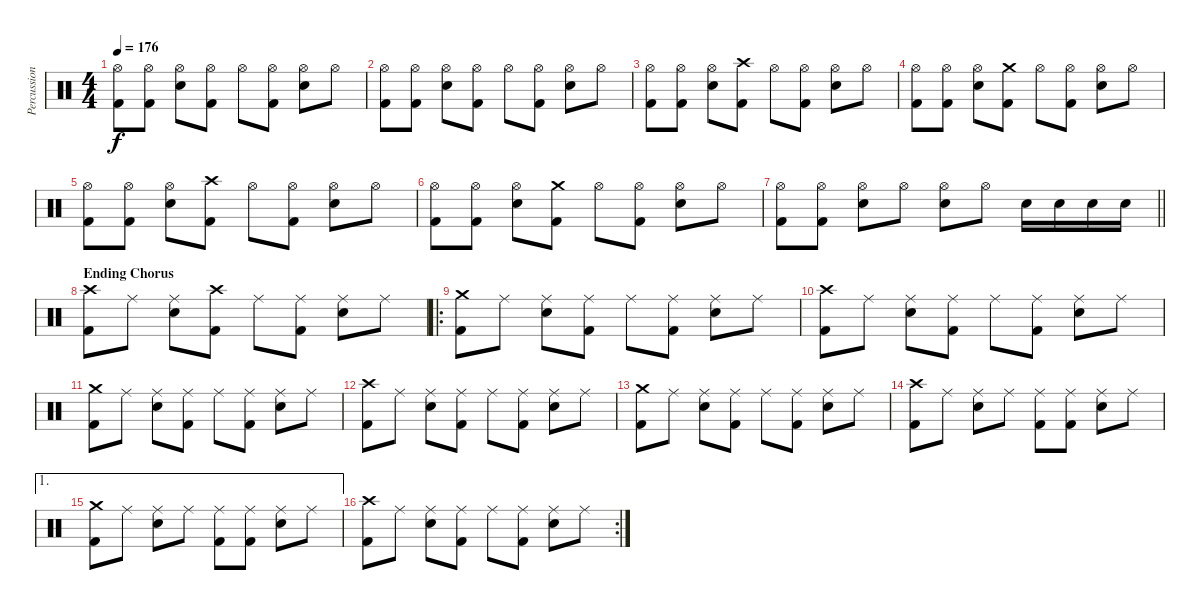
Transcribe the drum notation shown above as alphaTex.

\track ("Percussion" "Percussion") {instrument percussion}
\staff {score}
\articulation defaults
\ts (4 4)
\tempo 176
\clef neutral
\ks c
("Hi-Hat (open)" "Kick (hit) 2").8{dy f} ("Hi-Hat (open)" "Kick (hit) 2").8 ("Hi-Hat (open)" "Snare (hit) 2").8 ("Hi-Hat (open)" "Kick (hit) 2").8 "Hi-Hat (open)".8 ("Hi-Hat (open)" "Kick (hit) 2").8 ("Hi-Hat (open)" "Snare (hit) 2").8 "Hi-Hat (open)".8 |
("Hi-Hat (open)" "Kick (hit) 2").8 ("Hi-Hat (open)" "Kick (hit) 2").8 ("Hi-Hat (open)" "Snare (hit) 2").8 ("Hi-Hat (open)" "Kick (hit) 2").8 "Hi-Hat (open)".8 ("Hi-Hat (open)" "Kick (hit) 2").8 ("Hi-Hat (open)" "Snare (hit) 2").8 "Hi-Hat (open)".8 |
("Hi-Hat (open)" "Kick (hit) 2").8 ("Hi-Hat (open)" "Kick (hit) 2").8 ("Hi-Hat (open)" "Snare (hit) 2").8 ("Crash high (hit)" "Kick (hit) 2").8 "Hi-Hat (open)".8 ("Hi-Hat (open)" "Kick (hit) 2").8 ("Hi-Hat (open)" "Snare (hit) 2").8 "Hi-Hat (open)".8 |
("Hi-Hat (open)" "Kick (hit) 2").8 ("Hi-Hat (open)" "Kick (hit) 2").8 ("Hi-Hat (open)" "Snare (hit) 2").8 ("Crash medium (hit)" "Kick (hit) 2").8 "Hi-Hat (open)".8 ("Hi-Hat (open)" "Kick (hit) 2").8 ("Hi-Hat (open)" "Snare (hit) 2").8 "Hi-Hat (open)".8 |
("Hi-Hat (open)" "Kick (hit) 2").8 ("Hi-Hat (open)" "Kick (hit) 2").8 ("Hi-Hat (open)" "Snare (hit) 2").8 ("Crash high (hit)" "Kick (hit) 2").8 "Hi-Hat (open)".8 ("Hi-Hat (open)" "Kick (hit) 2").8 ("Hi-Hat (open)" "Snare (hit) 2").8 "Hi-Hat (open)".8 |
("Hi-Hat (open)" "Kick (hit) 2").8 ("Hi-Hat (open)" "Kick (hit) 2").8 ("Hi-Hat (open)" "Snare (hit) 2").8 ("Crash medium (hit)" "Kick (hit) 2").8 "Hi-Hat (open)".8 ("Hi-Hat (open)" "Kick (hit) 2").8 ("Hi-Hat (open)" "Snare (hit) 2").8 "Hi-Hat (open)".8 |
\barLineRight lightlight
("Hi-Hat (open)" "Kick (hit) 2").8 ("Hi-Hat (open)" "Kick (hit) 2").8 ("Hi-Hat (open)" "Snare (hit) 2").8 "Hi-Hat (open)".8 ("Hi-Hat (open)" "Snare (hit) 2").8 "Hi-Hat (open)".8 "Snare (hit) 2".16 "Snare (hit) 2".16 "Snare (hit) 2".16 "Snare (hit) 2".16 |
\section ("" "Ending Chorus")
("Crash high (hit)" "Kick (hit) 2").8 "Ride (middle)".8 ("Ride (middle)" "Snare (hit) 2").8 ("Crash high (hit)" "Kick (hit) 2").8 "Ride (middle)".8 ("Ride (middle)" "Kick (hit) 2").8 ("Ride (middle)" "Snare (hit) 2").8 "Ride (middle)".8 |
\ro
("Crash medium (hit)" "Kick (hit) 2").8 "Ride (middle)".8 ("Ride (middle)" "Snare (hit) 2").8 ("Ride (middle)" "Kick (hit) 2").8 "Ride (middle)".8 ("Ride (middle)" "Kick (hit) 2").8 ("Ride (middle)" "Snare (hit) 2").8 "Ride (middle)".8 |
("Crash high (hit)" "Kick (hit) 2").8 "Ride (middle)".8 ("Ride (middle)" "Snare (hit) 2").8 ("Ride (middle)" "Kick (hit) 2").8 "Ride (middle)".8 ("Ride (middle)" "Kick (hit) 2").8 ("Ride (middle)" "Snare (hit) 2").8 "Ride (middle)".8 |
("Crash medium (hit)" "Kick (hit) 2").8 "Ride (middle)".8 ("Ride (middle)" "Snare (hit) 2").8 ("Ride (middle)" "Kick (hit) 2").8 "Ride (middle)".8 ("Ride (middle)" "Kick (hit) 2").8 ("Ride (middle)" "Snare (hit) 2").8 "Ride (middle)".8 |
("Crash high (hit)" "Kick (hit) 2").8 "Ride (middle)".8 ("Ride (middle)" "Snare (hit) 2").8 ("Ride (middle)" "Kick (hit) 2").8 "Ride (middle)".8 ("Ride (middle)" "Kick (hit) 2").8 ("Ride (middle)" "Snare (hit) 2").8 "Ride (middle)".8 |
("Crash medium (hit)" "Kick (hit) 2").8 "Ride (middle)".8 ("Ride (middle)" "Snare (hit) 2").8 ("Ride (middle)" "Kick (hit) 2").8 "Ride (middle)".8 ("Ride (middle)" "Kick (hit) 2").8 ("Ride (middle)" "Snare (hit) 2").8 "Ride (middle)".8 |
("Crash high (hit)" "Kick (hit) 2").8 "Ride (middle)".8 ("Ride (middle)" "Snare (hit) 2").8 "Ride (middle)".8 ("Ride (middle)" "Kick (hit) 2").8 ("Ride (middle)" "Kick (hit) 2").8 ("Ride (middle)" "Snare (hit) 2").8 "Ride (middle)".8 |
\ae 1
("Crash medium (hit)" "Kick (hit) 2").8 "Ride (middle)".8 ("Ride (middle)" "Snare (hit) 2").8 "Ride (middle)".8 ("Ride (middle)" "Kick (hit) 2").8 ("Ride (middle)" "Kick (hit) 2").8 ("Ride (middle)" "Snare (hit) 2").8 "Ride (middle)".8 |
\rc 2
("Crash high (hit)" "Kick (hit) 2").8 "Ride (middle)".8 ("Ride (middle)" "Snare (hit) 2").8 ("Ride (middle)" "Kick (hit) 2").8 "Ride (middle)".8 ("Ride (middle)" "Kick (hit) 2").8 ("Ride (middle)" "Snare (hit) 2").8 "Ride (middle)".8
